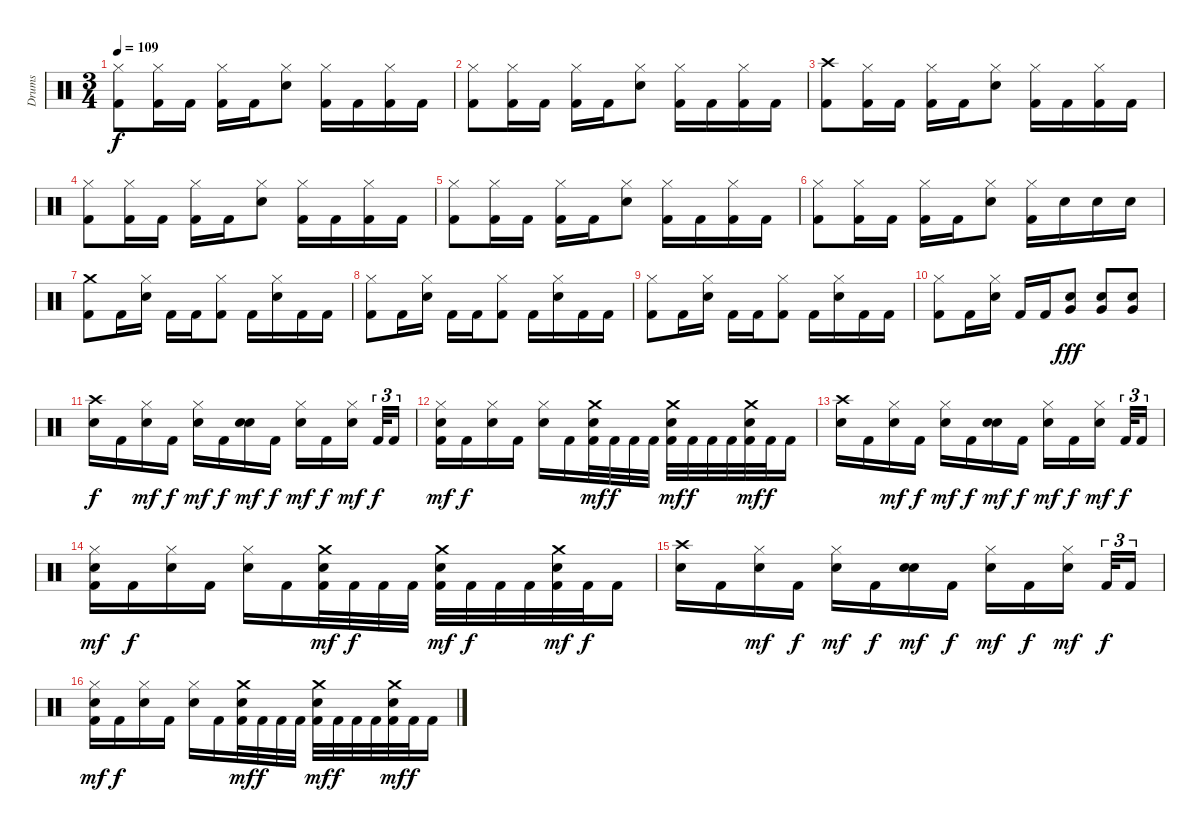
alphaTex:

\track ("Drums" "Drums") {instrument percussion}
\staff {score}
\articulation defaults
\ts (3 4)
\tempo 109
\clef neutral
\ks c
("Hi-Hat (closed)" "Kick (hit) 2").8{dy f} ("Hi-Hat (closed)" "Kick (hit) 2").16 "Kick (hit) 2".16 ("Hi-Hat (closed)" "Kick (hit) 2").16 "Kick (hit) 2".16 ("Hi-Hat (closed)" "Snare (hit) 2").8 ("Hi-Hat (closed)" "Kick (hit) 2").16 "Kick (hit) 2".16 ("Hi-Hat (closed)" "Kick (hit) 2").16 "Kick (hit) 2".16 |
("Hi-Hat (closed)" "Kick (hit) 2").8 ("Hi-Hat (closed)" "Kick (hit) 2").16 "Kick (hit) 2".16 ("Hi-Hat (closed)" "Kick (hit) 2").16 "Kick (hit) 2".16 ("Hi-Hat (closed)" "Snare (hit) 2").8 ("Hi-Hat (closed)" "Kick (hit) 2").16 "Kick (hit) 2".16 ("Hi-Hat (closed)" "Kick (hit) 2").16 "Kick (hit) 2".16 |
("Crash high (hit)" "Kick (hit) 2").8 ("Hi-Hat (closed)" "Kick (hit) 2").16 "Kick (hit) 2".16 ("Hi-Hat (closed)" "Kick (hit) 2").16 "Kick (hit) 2".16 ("Hi-Hat (closed)" "Snare (hit) 2").8 ("Hi-Hat (closed)" "Kick (hit) 2").16 "Kick (hit) 2".16 ("Hi-Hat (closed)" "Kick (hit) 2").16 "Kick (hit) 2".16 |
("Hi-Hat (closed)" "Kick (hit) 2").8 ("Hi-Hat (closed)" "Kick (hit) 2").16 "Kick (hit) 2".16 ("Hi-Hat (closed)" "Kick (hit) 2").16 "Kick (hit) 2".16 ("Hi-Hat (closed)" "Snare (hit) 2").8 ("Hi-Hat (closed)" "Kick (hit) 2").16 "Kick (hit) 2".16 ("Hi-Hat (closed)" "Kick (hit) 2").16 "Kick (hit) 2".16 |
("Hi-Hat (closed)" "Kick (hit) 2").8 ("Hi-Hat (closed)" "Kick (hit) 2").16 "Kick (hit) 2".16 ("Hi-Hat (closed)" "Kick (hit) 2").16 "Kick (hit) 2".16 ("Hi-Hat (closed)" "Snare (hit) 2").8 ("Hi-Hat (closed)" "Kick (hit) 2").16 "Kick (hit) 2".16 ("Hi-Hat (closed)" "Kick (hit) 2").16 "Kick (hit) 2".16 |
("Hi-Hat (closed)" "Kick (hit) 2").8 ("Hi-Hat (closed)" "Kick (hit) 2").16 "Kick (hit) 2".16 ("Hi-Hat (closed)" "Kick (hit) 2").16 "Kick (hit) 2".16 ("Hi-Hat (closed)" "Snare (hit) 2").8 ("Hi-Hat (closed)" "Kick (hit) 2").16 "Snare (hit) 2".16 "Snare (hit) 2".16 "Snare (hit) 2".16 |
("Crash medium (hit)" "Kick (hit) 2").8 "Kick (hit) 2".16 ("Hi-Hat (closed)" "Snare (hit) 2").16 "Kick (hit) 2".16 "Kick (hit) 2".16 ("Hi-Hat (closed)" "Kick (hit) 2").8 "Kick (hit) 2".16 ("Hi-Hat (closed)" "Snare (hit) 2").16 "Kick (hit) 2".16 "Kick (hit) 2".16 |
("Hi-Hat (closed)" "Kick (hit) 2").8 "Kick (hit) 2".16 ("Hi-Hat (closed)" "Snare (hit) 2").16 "Kick (hit) 2".16 "Kick (hit) 2".16 ("Hi-Hat (closed)" "Kick (hit) 2").8 "Kick (hit) 2".16 ("Hi-Hat (closed)" "Snare (hit) 2").16 "Kick (hit) 2".16 "Kick (hit) 2".16 |
("Hi-Hat (closed)" "Kick (hit) 2").8 "Kick (hit) 2".16 ("Hi-Hat (closed)" "Snare (hit) 2").16 "Kick (hit) 2".16 "Kick (hit) 2".16 ("Hi-Hat (closed)" "Kick (hit) 2").8 "Kick (hit) 2".16 ("Hi-Hat (closed)" "Snare (hit) 2").16 "Kick (hit) 2".16 "Kick (hit) 2".16 |
("Hi-Hat (closed)" "Kick (hit) 2").8 "Kick (hit) 2".16 ("Hi-Hat (closed)" "Snare (hit) 2").16 "Kick (hit) 2".16 "Kick (hit) 2".16 ("Snare (hit) 2" "Very Low Tom (hit)").8{dy fff} ("Snare (hit) 2" "Very Low Tom (hit)").8 ("Snare (hit) 2" "Very Low Tom (hit)").8 |
("Crash high (hit)" "Snare (hit) 2").16{dy f} "Kick (hit) 2".16 ("Hi-Hat (closed)" "Snare (hit) 2").16{dy mf} "Kick (hit) 2".16{dy f} ("Hi-Hat (closed)" "Snare (hit) 2").16{dy mf} "Kick (hit) 2".16{dy f} ("Electric Snare (hit)" "Snare (hit) 2").16{dy mf} "Kick (hit) 2".16{dy f} ("Hi-Hat (closed)" "Snare (hit) 2").16{dy mf} "Kick (hit) 2".16{dy f} ("Hi-Hat (closed)" "Snare (hit) 2").16{dy mf} "Kick (hit) 2".32{tu (3 2) dy f} "Kick (hit) 2".16{tu (3 2)} |
("Hi-Hat (closed)" "Snare (hit) 2" "Kick (hit) 2").16{dy mf} "Kick (hit) 2".16{dy f} ("Hi-Hat (closed)" "Snare (hit) 2").16 "Kick (hit) 2".16 ("Hi-Hat (closed)" "Snare (hit) 2").16 "Kick (hit) 2".16 ("Crash medium (hit)" "Snare (hit) 2" "Kick (hit) 2").32{dy mf} "Kick (hit) 2".32{dy f} "Kick (hit) 2".32 "Kick (hit) 2".32 ("Crash medium (hit)" "Snare (hit) 2" "Kick (hit) 2").32{dy mf} "Kick (hit) 2".32{dy f} "Kick (hit) 2".32 "Kick (hit) 2".32 ("Crash medium (hit)" "Snare (hit) 2" "Kick (hit) 2").32{dy mf} "Kick (hit) 2".32{dy f} "Kick (hit) 2".16 |
("Crash high (hit)" "Snare (hit) 2").16 "Kick (hit) 2".16 ("Hi-Hat (closed)" "Snare (hit) 2").16{dy mf} "Kick (hit) 2".16{dy f} ("Hi-Hat (closed)" "Snare (hit) 2").16{dy mf} "Kick (hit) 2".16{dy f} ("Electric Snare (hit)" "Snare (hit) 2").16{dy mf} "Kick (hit) 2".16{dy f} ("Hi-Hat (closed)" "Snare (hit) 2").16{dy mf} "Kick (hit) 2".16{dy f} ("Hi-Hat (closed)" "Snare (hit) 2").16{dy mf} "Kick (hit) 2".32{tu (3 2) dy f} "Kick (hit) 2".16{tu (3 2)} |
("Hi-Hat (closed)" "Snare (hit) 2" "Kick (hit) 2").16{dy mf} "Kick (hit) 2".16{dy f} ("Hi-Hat (closed)" "Snare (hit) 2").16 "Kick (hit) 2".16 ("Hi-Hat (closed)" "Snare (hit) 2").16 "Kick (hit) 2".16 ("Crash medium (hit)" "Snare (hit) 2" "Kick (hit) 2").32{dy mf} "Kick (hit) 2".32{dy f} "Kick (hit) 2".32 "Kick (hit) 2".32 ("Crash medium (hit)" "Snare (hit) 2" "Kick (hit) 2").32{dy mf} "Kick (hit) 2".32{dy f} "Kick (hit) 2".32 "Kick (hit) 2".32 ("Crash medium (hit)" "Snare (hit) 2" "Kick (hit) 2").32{dy mf} "Kick (hit) 2".32{dy f} "Kick (hit) 2".16 |
("Crash high (hit)" "Snare (hit) 2").16 "Kick (hit) 2".16 ("Hi-Hat (closed)" "Snare (hit) 2").16{dy mf} "Kick (hit) 2".16{dy f} ("Hi-Hat (closed)" "Snare (hit) 2").16{dy mf} "Kick (hit) 2".16{dy f} ("Electric Snare (hit)" "Snare (hit) 2").16{dy mf} "Kick (hit) 2".16{dy f} ("Hi-Hat (closed)" "Snare (hit) 2").16{dy mf} "Kick (hit) 2".16{dy f} ("Hi-Hat (closed)" "Snare (hit) 2").16{dy mf} "Kick (hit) 2".32{tu (3 2) dy f} "Kick (hit) 2".16{tu (3 2)} |
("Hi-Hat (closed)" "Snare (hit) 2" "Kick (hit) 2").16{dy mf} "Kick (hit) 2".16{dy f} ("Hi-Hat (closed)" "Snare (hit) 2").16 "Kick (hit) 2".16 ("Hi-Hat (closed)" "Snare (hit) 2").16 "Kick (hit) 2".16 ("Crash medium (hit)" "Snare (hit) 2" "Kick (hit) 2").32{dy mf} "Kick (hit) 2".32{dy f} "Kick (hit) 2".32 "Kick (hit) 2".32 ("Crash medium (hit)" "Snare (hit) 2" "Kick (hit) 2").32{dy mf} "Kick (hit) 2".32{dy f} "Kick (hit) 2".32 "Kick (hit) 2".32 ("Crash medium (hit)" "Snare (hit) 2" "Kick (hit) 2").32{dy mf} "Kick (hit) 2".32{dy f} "Kick (hit) 2".16
